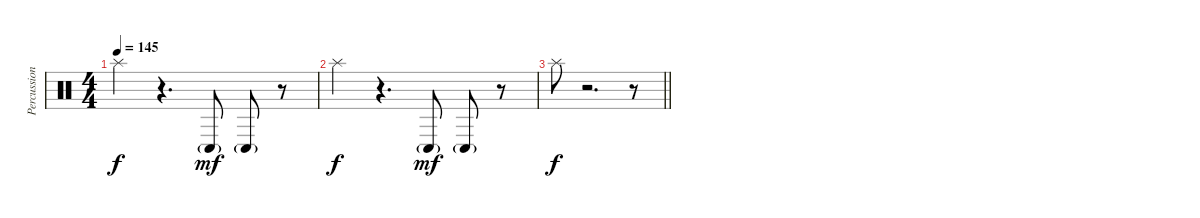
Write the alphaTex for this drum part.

\track ("Percussion 2" "Percussion") {instrument percussion}
\staff {score}
\articulation defaults
\ts (4 4)
\tempo 145
\clef neutral
\ks c "Splash (hit)".4{dy f}
r.4{d} "Conga low (hit)"{g}.8{dy mf} "Conga low (hit)"{g}.8 r.8 |
"Splash (hit)".4{dy f} r.4{d} "Conga low (hit)"{g}.8{dy mf} "Conga low (hit)"{g}.8 r.8 |
\barLineRight lightlight "Splash (hit)".8{dy f}
r.2{d} r.8
